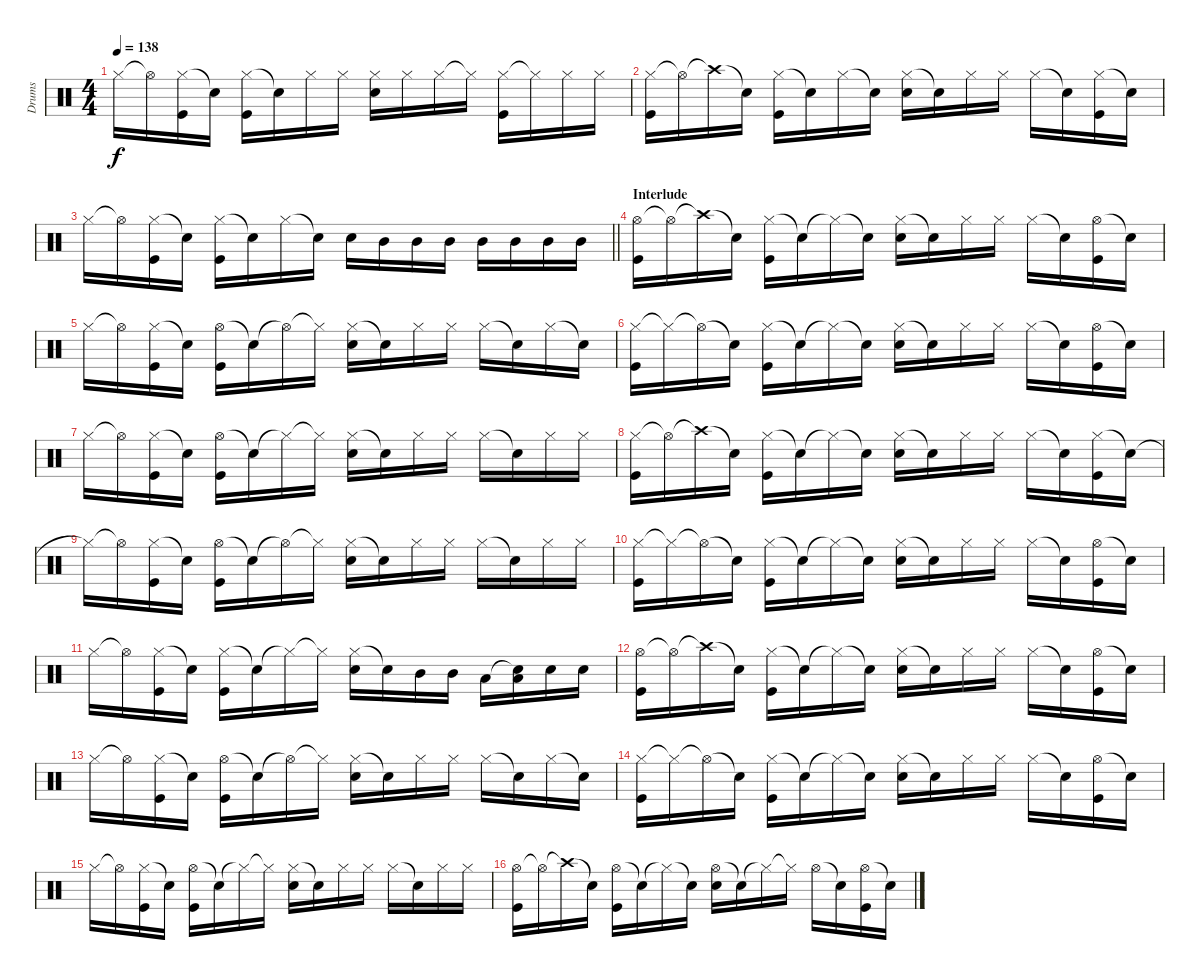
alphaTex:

\track ("Drums" "Drums") {instrument percussion}
\staff {score}
\articulation defaults
\ts (4 4)
\tempo 138
\clef neutral
\ks c "Hi-Hat (closed)".16{dy f} "Hi-Hat (open)"{t}.16
("Hi-Hat (closed)" "Kick (hit)").16 "Snare (hit)"{t}.16 ("Hi-Hat (closed)" "Kick (hit)").16 "Snare (hit)"{t}.16 "Hi-Hat (closed)".16 "Hi-Hat (closed)".16 ("Hi-Hat (closed)" "Electric Snare (hit)").16 "Hi-Hat (closed)".16 "Hi-Hat (closed)".16 "Hi-Hat (closed)"{t}.16 ("Hi-Hat (closed)" "Kick (hit)").16 "Hi-Hat (closed)"{t}.16 "Hi-Hat (closed)".16 "Hi-Hat (closed)".16 |
("Hi-Hat (closed)" "Kick (hit)").16 "Hi-Hat (open)"{t}.16 "Crash high (hit)"{t}.16 "Snare (hit)"{t}.16 ("Hi-Hat (closed)" "Kick (hit)").16 "Snare (hit)"{t}.16 "Hi-Hat (closed)".16 "Snare (hit)"{t}.16 ("Hi-Hat (closed)" "Electric Snare (hit)").16 "Snare (hit)"{t}.16 "Hi-Hat (closed)".16 "Hi-Hat (closed)".16 "Hi-Hat (closed)".16 "Snare (hit)"{t}.16 ("Hi-Hat (closed)" "Kick (hit)").16 "Snare (hit)"{t}.16 |
\barLineRight lightlight "Hi-Hat (closed)".16 "Hi-Hat (open)"{t}.16
("Hi-Hat (closed)" "Kick (hit)").16 "Snare (hit)"{t}.16 ("Hi-Hat (closed)" "Kick (hit)").16 "Snare (hit)"{t}.16 "Hi-Hat (closed)".16 "Snare (hit)"{t}.16 "Electric Snare (hit)".16 "Mid Tom (hit)".16 "Mid Tom (hit)".16 "Mid Tom (hit)".16 "Mid Tom (hit)".16 "Mid Tom (hit)".16 "Mid Tom (hit)".16 "Mid Tom (hit)".16 |
\section ("" "Interlude")
("Hi-Hat (open)" "Kick (hit)").16 "Hi-Hat (open)"{t}.16 "Crash high (hit)"{t}.16 "Snare (hit)"{t}.16 ("Hi-Hat (closed)" "Kick (hit)").16 "Snare (hit)"{t}.16 "Hi-Hat (closed)"{t}.16 "Snare (hit)"{t}.16 ("Hi-Hat (closed)" "Electric Snare (hit)").16 "Snare (hit)"{t}.16 "Hi-Hat (closed)".16 "Hi-Hat (closed)".16 "Hi-Hat (closed)".16 "Snare (hit)"{t}.16 ("Hi-Hat (open)" "Kick (hit)").16 "Snare (hit)"{t}.16 |
"Hi-Hat (closed)".16 "Hi-Hat (open)"{t}.16 ("Hi-Hat (closed)" "Kick (hit)").16 "Snare (hit)"{t}.16 ("Hi-Hat (open)" "Kick (hit)").16 "Snare (hit)"{t}.16 "Hi-Hat (open)"{t}.16 "Hi-Hat (closed)"{t}.16 ("Hi-Hat (closed)" "Electric Snare (hit)").16 "Snare (hit)"{t}.16 "Hi-Hat (closed)".16 "Hi-Hat (closed)".16 "Hi-Hat (closed)".16 "Snare (hit)"{t}.16 "Hi-Hat (closed)".16 "Snare (hit)"{t}.16 |
("Hi-Hat (closed)" "Kick (hit)").16 "Hi-Hat (closed)"{t}.16 "Hi-Hat (open)"{t}.16 "Snare (hit)"{t}.16 ("Hi-Hat (closed)" "Kick (hit)").16 "Snare (hit)"{t}.16 "Hi-Hat (closed)"{t}.16 "Snare (hit)"{t}.16 ("Hi-Hat (closed)" "Electric Snare (hit)").16 "Snare (hit)"{t}.16 "Hi-Hat (closed)".16 "Hi-Hat (closed)".16 "Hi-Hat (closed)".16 "Snare (hit)"{t}.16 ("Hi-Hat (open)" "Kick (hit)").16 "Snare (hit)"{t}.16 |
"Hi-Hat (closed)".16 "Hi-Hat (open)"{t}.16 ("Hi-Hat (closed)" "Kick (hit)").16 "Snare (hit)"{t}.16 ("Hi-Hat (open)" "Kick (hit)").16 "Snare (hit)"{t}.16 "Hi-Hat (closed)"{t}.16 "Hi-Hat (closed)"{t}.16 ("Hi-Hat (closed)" "Electric Snare (hit)").16 "Snare (hit)"{t}.16 "Hi-Hat (closed)".16 "Hi-Hat (closed)".16 "Hi-Hat (closed)".16 "Snare (hit)"{t}.16 "Hi-Hat (closed)".16 "Hi-Hat (closed)".16 |
("Hi-Hat (closed)" "Kick (hit)").16 "Hi-Hat (open)"{t}.16 "Crash high (hit)"{t}.16 "Snare (hit)"{t}.16 ("Hi-Hat (closed)" "Kick (hit)").16 "Snare (hit)"{t}.16 "Hi-Hat (closed)"{t}.16 "Snare (hit)"{t}.16 ("Hi-Hat (closed)" "Electric Snare (hit)").16 "Snare (hit)"{t}.16 "Hi-Hat (closed)".16 "Hi-Hat (closed)".16 "Hi-Hat (closed)".16 "Snare (hit)"{t}.16 ("Hi-Hat (closed)" "Kick (hit)").16 "Snare (hit)"{t}.16 |
"Hi-Hat (closed)"{t}.16 "Hi-Hat (open)"{t}.16 ("Hi-Hat (closed)" "Kick (hit)").16 "Snare (hit)"{t}.16 ("Hi-Hat (open)" "Kick (hit)").16 "Snare (hit)"{t}.16 "Hi-Hat (open)"{t}.16 "Hi-Hat (closed)"{t}.16 ("Hi-Hat (closed)" "Electric Snare (hit)").16 "Snare (hit)"{t}.16 "Hi-Hat (closed)".16 "Hi-Hat (closed)".16 "Hi-Hat (closed)".16 "Snare (hit)"{t}.16 "Hi-Hat (closed)".16 "Hi-Hat (closed)".16 |
("Hi-Hat (closed)" "Kick (hit)").16 "Hi-Hat (closed)"{t}.16 "Hi-Hat (open)"{t}.16 "Snare (hit)"{t}.16 ("Hi-Hat (closed)" "Kick (hit)").16 "Snare (hit)"{t}.16 "Hi-Hat (closed)"{t}.16 "Snare (hit)"{t}.16 ("Hi-Hat (closed)" "Electric Snare (hit)").16 "Snare (hit)"{t}.16 "Hi-Hat (closed)".16 "Hi-Hat (closed)".16 "Hi-Hat (closed)".16 "Snare (hit)"{t}.16 ("Hi-Hat (open)" "Kick (hit)").16 "Snare (hit)"{t}.16 |
"Hi-Hat (closed)".16 "Hi-Hat (open)"{t}.16 ("Hi-Hat (closed)" "Kick (hit)").16 "Snare (hit)"{t}.16 ("Hi-Hat (closed)" "Kick (hit)").16 "Snare (hit)"{t}.16 "Hi-Hat (closed)"{t}.16 "Hi-Hat (closed)"{t}.16 ("Hi-Hat (closed)" "Electric Snare (hit)").16 "Snare (hit)"{t}.16 "Mid Tom (hit)".16 "Mid Tom (hit)".16 "Low Tom (hit)".16 ("Snare (hit)"{t} "Low Tom (hit)").16 "Electric Snare (hit)".16 "Electric Snare (hit)".16 |
("Hi-Hat (open)" "Kick (hit)").16 "Hi-Hat (open)"{t}.16 "Crash high (hit)"{t}.16 "Snare (hit)"{t}.16 ("Hi-Hat (closed)" "Kick (hit)").16 "Snare (hit)"{t}.16 "Hi-Hat (closed)"{t}.16 "Snare (hit)"{t}.16 ("Hi-Hat (closed)" "Electric Snare (hit)").16 "Snare (hit)"{t}.16 "Hi-Hat (closed)".16 "Hi-Hat (closed)".16 "Hi-Hat (closed)".16 "Snare (hit)"{t}.16 ("Hi-Hat (open)" "Kick (hit)").16 "Snare (hit)"{t}.16 |
"Hi-Hat (closed)".16 "Hi-Hat (open)"{t}.16 ("Hi-Hat (closed)" "Kick (hit)").16 "Snare (hit)"{t}.16 ("Hi-Hat (open)" "Kick (hit)").16 "Snare (hit)"{t}.16 "Hi-Hat (open)"{t}.16 "Hi-Hat (closed)"{t}.16 ("Hi-Hat (closed)" "Electric Snare (hit)").16 "Snare (hit)"{t}.16 "Hi-Hat (closed)".16 "Hi-Hat (closed)".16 "Hi-Hat (closed)".16 "Snare (hit)"{t}.16 "Hi-Hat (closed)".16 "Snare (hit)"{t}.16 |
("Hi-Hat (closed)" "Kick (hit)").16 "Hi-Hat (closed)"{t}.16 "Hi-Hat (open)"{t}.16 "Snare (hit)"{t}.16 ("Hi-Hat (closed)" "Kick (hit)").16 "Snare (hit)"{t}.16 "Hi-Hat (closed)"{t}.16 "Snare (hit)"{t}.16 ("Hi-Hat (closed)" "Electric Snare (hit)").16 "Snare (hit)"{t}.16 "Hi-Hat (closed)".16 "Hi-Hat (closed)".16 "Hi-Hat (closed)".16 "Snare (hit)"{t}.16 ("Hi-Hat (open)" "Kick (hit)").16 "Snare (hit)"{t}.16 |
"Hi-Hat (closed)".16 "Hi-Hat (open)"{t}.16 ("Hi-Hat (closed)" "Kick (hit)").16 "Snare (hit)"{t}.16 ("Hi-Hat (open)" "Kick (hit)").16 "Snare (hit)"{t}.16 "Hi-Hat (closed)"{t}.16 "Hi-Hat (closed)"{t}.16 ("Hi-Hat (closed)" "Electric Snare (hit)").16 "Snare (hit)"{t}.16 "Hi-Hat (closed)".16 "Hi-Hat (closed)".16 "Hi-Hat (closed)".16 "Snare (hit)"{t}.16 "Hi-Hat (closed)".16 "Hi-Hat (closed)".16 |
("Hi-Hat (open)" "Kick (hit)").16 "Hi-Hat (open)"{t}.16 "Crash high (hit)"{t}.16 "Snare (hit)"{t}.16 ("Hi-Hat (open)" "Kick (hit)").16 "Snare (hit)"{t}.16 "Hi-Hat (closed)"{t}.16 "Snare (hit)"{t}.16 ("Hi-Hat (open)" "Electric Snare (hit)").16 "Snare (hit)"{t}.16 "Hi-Hat (closed)"{t}.16 "Hi-Hat (closed)"{t}.16 "Hi-Hat (open)".16 "Snare (hit)"{t}.16 ("Hi-Hat (open)" "Kick (hit)").16 "Snare (hit)"{t}.16
